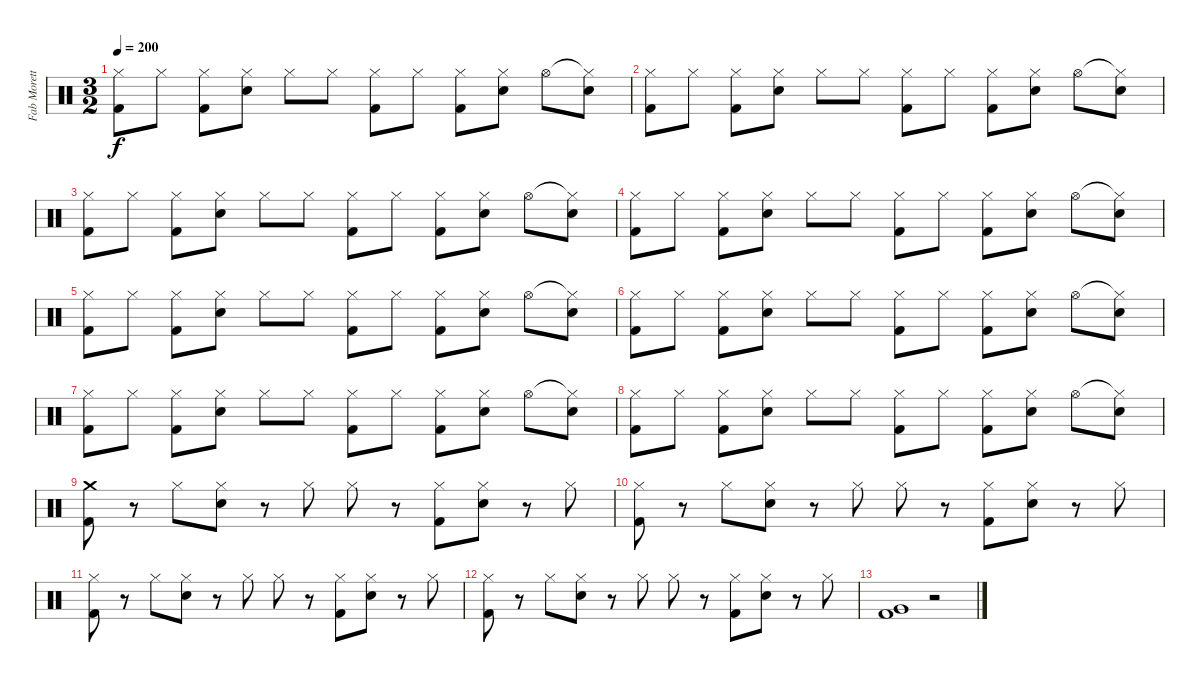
\track ("Fab Moretti" "Fab Morett") {instrument percussion}
\staff {score}
\articulation defaults
\ts (3 2)
\tempo 200
\clef neutral
\ks c
("Hi-Hat (closed)" "Kick (hit) 2").8{dy f} "Hi-Hat (closed)".8 ("Hi-Hat (closed)" "Kick (hit) 2").8 ("Hi-Hat (closed)" "Snare (hit) 2").8 "Hi-Hat (closed)".8 "Hi-Hat (closed)".8 ("Hi-Hat (closed)" "Kick (hit) 2").8 "Hi-Hat (closed)".8 ("Hi-Hat (closed)" "Kick (hit) 2").8 ("Hi-Hat (closed)" "Snare (hit) 2").8 "Hi-Hat (open)".8 ("Hi-Hat (closed)"{t} "Snare (hit) 2").8 |
("Hi-Hat (closed)" "Kick (hit) 2").8 "Hi-Hat (closed)".8 ("Hi-Hat (closed)" "Kick (hit) 2").8 ("Hi-Hat (closed)" "Snare (hit) 2").8 "Hi-Hat (closed)".8 "Hi-Hat (closed)".8 ("Hi-Hat (closed)" "Kick (hit) 2").8 "Hi-Hat (closed)".8 ("Hi-Hat (closed)" "Kick (hit) 2").8 ("Hi-Hat (closed)" "Snare (hit) 2").8 "Hi-Hat (open)".8 ("Hi-Hat (closed)"{t} "Snare (hit) 2").8 |
("Hi-Hat (closed)" "Kick (hit) 2").8 "Hi-Hat (closed)".8 ("Hi-Hat (closed)" "Kick (hit) 2").8 ("Hi-Hat (closed)" "Snare (hit) 2").8 "Hi-Hat (closed)".8 "Hi-Hat (closed)".8 ("Hi-Hat (closed)" "Kick (hit) 2").8 "Hi-Hat (closed)".8 ("Hi-Hat (closed)" "Kick (hit) 2").8 ("Hi-Hat (closed)" "Snare (hit) 2").8 "Hi-Hat (open)".8 ("Hi-Hat (closed)"{t} "Snare (hit) 2").8 |
("Hi-Hat (closed)" "Kick (hit) 2").8 "Hi-Hat (closed)".8 ("Hi-Hat (closed)" "Kick (hit) 2").8 ("Hi-Hat (closed)" "Snare (hit) 2").8 "Hi-Hat (closed)".8 "Hi-Hat (closed)".8 ("Hi-Hat (closed)" "Kick (hit) 2").8 "Hi-Hat (closed)".8 ("Hi-Hat (closed)" "Kick (hit) 2").8 ("Hi-Hat (closed)" "Snare (hit) 2").8 "Hi-Hat (open)".8 ("Hi-Hat (closed)"{t} "Snare (hit) 2").8 |
("Hi-Hat (closed)" "Kick (hit) 2").8 "Hi-Hat (closed)".8 ("Hi-Hat (closed)" "Kick (hit) 2").8 ("Hi-Hat (closed)" "Snare (hit) 2").8 "Hi-Hat (closed)".8 "Hi-Hat (closed)".8 ("Hi-Hat (closed)" "Kick (hit) 2").8 "Hi-Hat (closed)".8 ("Hi-Hat (closed)" "Kick (hit) 2").8 ("Hi-Hat (closed)" "Snare (hit) 2").8 "Hi-Hat (open)".8 ("Hi-Hat (closed)"{t} "Snare (hit) 2").8 |
("Hi-Hat (closed)" "Kick (hit) 2").8 "Hi-Hat (closed)".8 ("Hi-Hat (closed)" "Kick (hit) 2").8 ("Hi-Hat (closed)" "Snare (hit) 2").8 "Hi-Hat (closed)".8 "Hi-Hat (closed)".8 ("Hi-Hat (closed)" "Kick (hit) 2").8 "Hi-Hat (closed)".8 ("Hi-Hat (closed)" "Kick (hit) 2").8 ("Hi-Hat (closed)" "Snare (hit) 2").8 "Hi-Hat (open)".8 ("Hi-Hat (closed)"{t} "Snare (hit) 2").8 |
("Hi-Hat (closed)" "Kick (hit) 2").8 "Hi-Hat (closed)".8 ("Hi-Hat (closed)" "Kick (hit) 2").8 ("Hi-Hat (closed)" "Snare (hit) 2").8 "Hi-Hat (closed)".8 "Hi-Hat (closed)".8 ("Hi-Hat (closed)" "Kick (hit) 2").8 "Hi-Hat (closed)".8 ("Hi-Hat (closed)" "Kick (hit) 2").8 ("Hi-Hat (closed)" "Snare (hit) 2").8 "Hi-Hat (open)".8 ("Hi-Hat (closed)"{t} "Snare (hit) 2").8 |
("Hi-Hat (closed)" "Kick (hit) 2").8 "Hi-Hat (closed)".8 ("Hi-Hat (closed)" "Kick (hit) 2").8 ("Hi-Hat (closed)" "Snare (hit) 2").8 "Hi-Hat (closed)".8 "Hi-Hat (closed)".8 ("Hi-Hat (closed)" "Kick (hit) 2").8 "Hi-Hat (closed)".8 ("Hi-Hat (closed)" "Kick (hit) 2").8 ("Hi-Hat (closed)" "Snare (hit) 2").8 "Hi-Hat (open)".8 ("Hi-Hat (closed)"{t} "Snare (hit) 2").8 |
("Crash medium (hit)" "Kick (hit) 2").8 r.8 "Hi-Hat (closed)".8 ("Hi-Hat (closed)" "Snare (hit) 2").8 r.8 "Hi-Hat (closed)".8 "Hi-Hat (closed)".8 r.8 ("Hi-Hat (closed)" "Kick (hit) 2").8 ("Hi-Hat (closed)" "Snare (hit) 2").8 r.8 "Hi-Hat (closed)".8 |
("Hi-Hat (closed)" "Kick (hit) 2").8 r.8 "Hi-Hat (closed)".8 ("Hi-Hat (closed)" "Snare (hit) 2").8 r.8 "Hi-Hat (closed)".8 "Hi-Hat (closed)".8 r.8 ("Hi-Hat (closed)" "Kick (hit) 2").8 ("Hi-Hat (closed)" "Snare (hit) 2").8 r.8 "Hi-Hat (closed)".8 |
("Hi-Hat (closed)" "Kick (hit) 2").8 r.8 "Hi-Hat (closed)".8 ("Hi-Hat (closed)" "Snare (hit) 2").8 r.8 "Hi-Hat (closed)".8 "Hi-Hat (closed)".8 r.8 ("Hi-Hat (closed)" "Kick (hit) 2").8 ("Hi-Hat (closed)" "Snare (hit) 2").8 r.8 "Hi-Hat (closed)".8 |
("Hi-Hat (closed)" "Kick (hit) 2").8 r.8 "Hi-Hat (closed)".8 ("Hi-Hat (closed)" "Snare (hit) 2").8 r.8 "Hi-Hat (closed)".8 "Hi-Hat (closed)".8 r.8 ("Hi-Hat (closed)" "Kick (hit) 2").8 ("Hi-Hat (closed)" "Snare (hit) 2").8 r.8 "Hi-Hat (closed)".8 |
("Very Low Tom (hit)" "Kick (hit) 2").1 r.2
